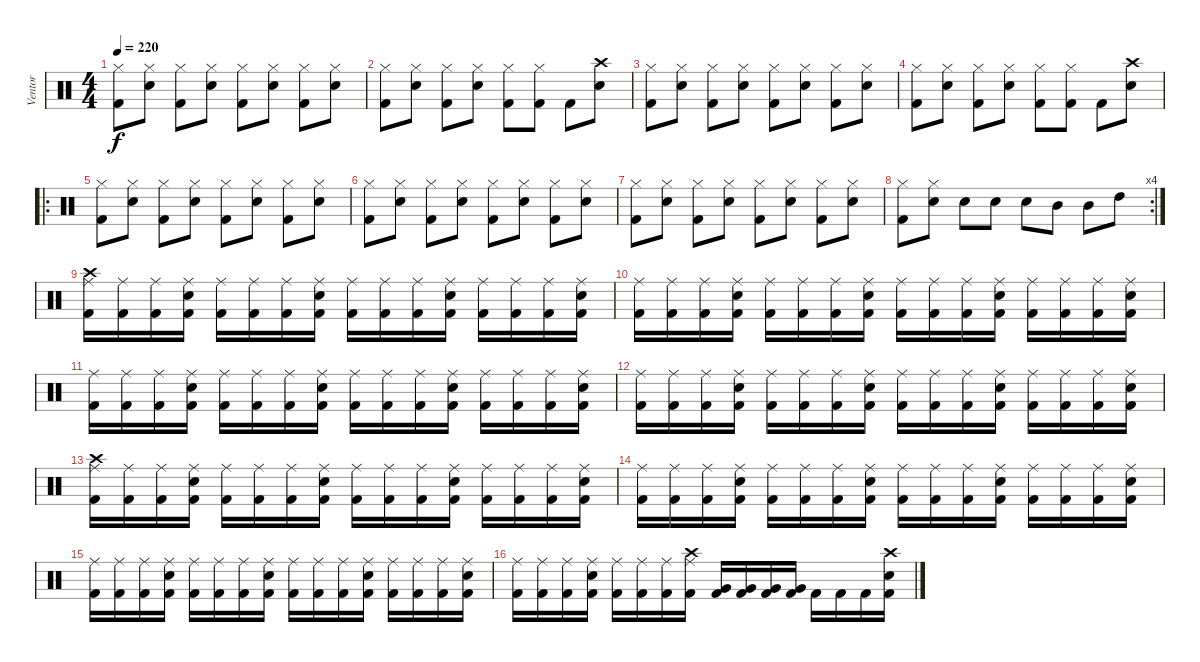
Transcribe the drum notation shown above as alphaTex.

\track ("Ventor" "Ventor") {instrument percussion}
\staff {score}
\articulation defaults
\ts (4 4)
\tempo 220
\clef neutral
\ks c
("Kick (hit) 2" "Hi-Hat (closed)").8{dy f} ("Snare (hit) 2" "Hi-Hat (closed)").8 ("Kick (hit) 2" "Hi-Hat (closed)").8 ("Snare (hit) 2" "Hi-Hat (closed)").8 ("Kick (hit) 2" "Hi-Hat (closed)").8 ("Snare (hit) 2" "Hi-Hat (closed)").8 ("Kick (hit) 2" "Hi-Hat (closed)").8 ("Snare (hit) 2" "Hi-Hat (closed)").8 |
("Kick (hit) 2" "Hi-Hat (closed)").8 ("Snare (hit) 2" "Hi-Hat (closed)").8 ("Kick (hit) 2" "Hi-Hat (closed)").8 ("Snare (hit) 2" "Hi-Hat (closed)").8 ("Kick (hit) 2" "Hi-Hat (closed)").8 ("Kick (hit) 2" "Hi-Hat (closed)").8 "Kick (hit) 2".8 ("Snare (hit) 2" "Crash high (hit)").8 |
("Kick (hit) 2" "Hi-Hat (closed)").8 ("Snare (hit) 2" "Hi-Hat (closed)").8 ("Kick (hit) 2" "Hi-Hat (closed)").8 ("Snare (hit) 2" "Hi-Hat (closed)").8 ("Kick (hit) 2" "Hi-Hat (closed)").8 ("Snare (hit) 2" "Hi-Hat (closed)").8 ("Kick (hit) 2" "Hi-Hat (closed)").8 ("Snare (hit) 2" "Hi-Hat (closed)").8 |
("Kick (hit) 2" "Hi-Hat (closed)").8 ("Snare (hit) 2" "Hi-Hat (closed)").8 ("Kick (hit) 2" "Hi-Hat (closed)").8 ("Snare (hit) 2" "Hi-Hat (closed)").8 ("Kick (hit) 2" "Hi-Hat (closed)").8 ("Kick (hit) 2" "Hi-Hat (closed)").8 "Kick (hit) 2".8 ("Snare (hit) 2" "Crash high (hit)").8 |
\ro
("Hi-Hat (closed)" "Kick (hit) 2").8 ("Hi-Hat (closed)" "Snare (hit) 2").8 ("Hi-Hat (closed)" "Kick (hit) 2").8 ("Hi-Hat (closed)" "Snare (hit) 2").8 ("Hi-Hat (closed)" "Kick (hit) 2").8 ("Hi-Hat (closed)" "Snare (hit) 2").8 ("Hi-Hat (closed)" "Kick (hit) 2").8 ("Hi-Hat (closed)" "Snare (hit) 2").8 |
("Hi-Hat (closed)" "Kick (hit) 2").8 ("Hi-Hat (closed)" "Snare (hit) 2").8 ("Hi-Hat (closed)" "Kick (hit) 2").8 ("Hi-Hat (closed)" "Snare (hit) 2").8 ("Hi-Hat (closed)" "Kick (hit) 2").8 ("Hi-Hat (closed)" "Snare (hit) 2").8 ("Hi-Hat (closed)" "Kick (hit) 2").8 ("Hi-Hat (closed)" "Snare (hit) 2").8 |
("Hi-Hat (closed)" "Kick (hit) 2").8 ("Hi-Hat (closed)" "Snare (hit) 2").8 ("Hi-Hat (closed)" "Kick (hit) 2").8 ("Hi-Hat (closed)" "Snare (hit) 2").8 ("Hi-Hat (closed)" "Kick (hit) 2").8 ("Hi-Hat (closed)" "Snare (hit) 2").8 ("Hi-Hat (closed)" "Kick (hit) 2").8 ("Hi-Hat (closed)" "Snare (hit) 2").8 |
\rc 4
("Hi-Hat (closed)" "Kick (hit) 2").8 ("Hi-Hat (closed)" "Snare (hit) 2").8 "Snare (hit) 2".8 "Snare (hit) 2".8 "Snare (hit) 2".8 "Mid Tom (hit)".8 "Mid Tom (hit)".8 "High Tom (hit)".8 |
("Crash high (hit)" "Kick (hit) 2" "Ride (middle)").16 ("Kick (hit) 2" "Ride (middle)").16 ("Kick (hit) 2" "Ride (middle)").16 ("Snare (hit) 2" "Kick (hit) 2" "Ride (middle)").16 ("Kick (hit) 2" "Ride (middle)").16 ("Kick (hit) 2" "Ride (middle)").16 ("Kick (hit) 2" "Ride (middle)").16 ("Snare (hit) 2" "Kick (hit) 2" "Ride (middle)").16 ("Kick (hit) 2" "Ride (middle)").16 ("Kick (hit) 2" "Ride (middle)").16 ("Kick (hit) 2" "Ride (middle)").16 ("Snare (hit) 2" "Kick (hit) 2" "Ride (middle)").16 ("Kick (hit) 2" "Ride (middle)").16 ("Kick (hit) 2" "Ride (middle)").16 ("Kick (hit) 2" "Ride (middle)").16 ("Snare (hit) 2" "Kick (hit) 2" "Ride (middle)").16 |
("Kick (hit) 2" "Ride (middle)").16 ("Kick (hit) 2" "Ride (middle)").16 ("Kick (hit) 2" "Ride (middle)").16 ("Snare (hit) 2" "Kick (hit) 2" "Ride (middle)").16 ("Kick (hit) 2" "Ride (middle)").16 ("Kick (hit) 2" "Ride (middle)").16 ("Kick (hit) 2" "Ride (middle)").16 ("Snare (hit) 2" "Kick (hit) 2" "Ride (middle)").16 ("Kick (hit) 2" "Ride (middle)").16 ("Kick (hit) 2" "Ride (middle)").16 ("Kick (hit) 2" "Ride (middle)").16 ("Snare (hit) 2" "Kick (hit) 2" "Ride (middle)").16 ("Kick (hit) 2" "Ride (middle)").16 ("Kick (hit) 2" "Ride (middle)").16 ("Kick (hit) 2" "Ride (middle)").16 ("Snare (hit) 2" "Kick (hit) 2" "Ride (middle)").16 |
("Kick (hit) 2" "Ride (middle)").16 ("Kick (hit) 2" "Ride (middle)").16 ("Kick (hit) 2" "Ride (middle)").16 ("Snare (hit) 2" "Kick (hit) 2" "Ride (middle)").16 ("Kick (hit) 2" "Ride (middle)").16 ("Kick (hit) 2" "Ride (middle)").16 ("Kick (hit) 2" "Ride (middle)").16 ("Snare (hit) 2" "Kick (hit) 2" "Ride (middle)").16 ("Kick (hit) 2" "Ride (middle)").16 ("Kick (hit) 2" "Ride (middle)").16 ("Kick (hit) 2" "Ride (middle)").16 ("Snare (hit) 2" "Kick (hit) 2" "Ride (middle)").16 ("Kick (hit) 2" "Ride (middle)").16 ("Kick (hit) 2" "Ride (middle)").16 ("Kick (hit) 2" "Ride (middle)").16 ("Snare (hit) 2" "Kick (hit) 2" "Ride (middle)").16 |
("Kick (hit) 2" "Ride (middle)").16 ("Kick (hit) 2" "Ride (middle)").16 ("Kick (hit) 2" "Ride (middle)").16 ("Snare (hit) 2" "Kick (hit) 2" "Ride (middle)").16 ("Kick (hit) 2" "Ride (middle)").16 ("Kick (hit) 2" "Ride (middle)").16 ("Kick (hit) 2" "Ride (middle)").16 ("Snare (hit) 2" "Kick (hit) 2" "Ride (middle)").16 ("Kick (hit) 2" "Ride (middle)").16 ("Kick (hit) 2" "Ride (middle)").16 ("Kick (hit) 2" "Ride (middle)").16 ("Snare (hit) 2" "Kick (hit) 2" "Ride (middle)").16 ("Kick (hit) 2" "Ride (middle)").16 ("Kick (hit) 2" "Ride (middle)").16 ("Kick (hit) 2" "Ride (middle)").16 ("Snare (hit) 2" "Kick (hit) 2" "Ride (middle)").16 |
("Crash high (hit)" "Kick (hit) 2" "Ride (middle)").16 ("Kick (hit) 2" "Ride (middle)").16 ("Kick (hit) 2" "Ride (middle)").16 ("Snare (hit) 2" "Kick (hit) 2" "Ride (middle)").16 ("Kick (hit) 2" "Ride (middle)").16 ("Kick (hit) 2" "Ride (middle)").16 ("Kick (hit) 2" "Ride (middle)").16 ("Snare (hit) 2" "Kick (hit) 2" "Ride (middle)").16 ("Kick (hit) 2" "Ride (middle)").16 ("Kick (hit) 2" "Ride (middle)").16 ("Kick (hit) 2" "Ride (middle)").16 ("Snare (hit) 2" "Kick (hit) 2" "Ride (middle)").16 ("Kick (hit) 2" "Ride (middle)").16 ("Kick (hit) 2" "Ride (middle)").16 ("Kick (hit) 2" "Ride (middle)").16 ("Snare (hit) 2" "Kick (hit) 2" "Ride (middle)").16 |
("Kick (hit) 2" "Ride (middle)").16 ("Kick (hit) 2" "Ride (middle)").16 ("Kick (hit) 2" "Ride (middle)").16 ("Snare (hit) 2" "Kick (hit) 2" "Ride (middle)").16 ("Kick (hit) 2" "Ride (middle)").16 ("Kick (hit) 2" "Ride (middle)").16 ("Kick (hit) 2" "Ride (middle)").16 ("Snare (hit) 2" "Kick (hit) 2" "Ride (middle)").16 ("Kick (hit) 2" "Ride (middle)").16 ("Kick (hit) 2" "Ride (middle)").16 ("Kick (hit) 2" "Ride (middle)").16 ("Snare (hit) 2" "Kick (hit) 2" "Ride (middle)").16 ("Kick (hit) 2" "Ride (middle)").16 ("Kick (hit) 2" "Ride (middle)").16 ("Kick (hit) 2" "Ride (middle)").16 ("Snare (hit) 2" "Kick (hit) 2" "Ride (middle)").16 |
("Kick (hit) 2" "Ride (middle)").16 ("Kick (hit) 2" "Ride (middle)").16 ("Kick (hit) 2" "Ride (middle)").16 ("Snare (hit) 2" "Kick (hit) 2" "Ride (middle)").16 ("Kick (hit) 2" "Ride (middle)").16 ("Kick (hit) 2" "Ride (middle)").16 ("Kick (hit) 2" "Ride (middle)").16 ("Snare (hit) 2" "Kick (hit) 2" "Ride (middle)").16 ("Kick (hit) 2" "Ride (middle)").16 ("Kick (hit) 2" "Ride (middle)").16 ("Kick (hit) 2" "Ride (middle)").16 ("Snare (hit) 2" "Kick (hit) 2" "Ride (middle)").16 ("Kick (hit) 2" "Ride (middle)").16 ("Kick (hit) 2" "Ride (middle)").16 ("Kick (hit) 2" "Ride (middle)").16 ("Snare (hit) 2" "Kick (hit) 2" "Ride (middle)").16 |
("Kick (hit) 2" "Ride (middle)").16 ("Kick (hit) 2" "Ride (middle)").16 ("Kick (hit) 2" "Ride (middle)").16 ("Snare (hit) 2" "Kick (hit) 2" "Ride (middle)").16 ("Kick (hit) 2" "Ride (middle)").16 ("Kick (hit) 2" "Ride (middle)").16 ("Kick (hit) 2" "Ride (middle)").16 ("Crash high (hit)" "Kick (hit) 2" "Ride (middle)").16 ("Kick (hit) 2" "Very Low Tom (hit)").16 ("Kick (hit) 2" "Very Low Tom (hit)").16 ("Kick (hit) 2" "Very Low Tom (hit)").16 ("Kick (hit) 2" "Very Low Tom (hit)").16 "Kick (hit) 2".16 "Kick (hit) 2".16 "Kick (hit) 2".16 ("Crash high (hit)" "Snare (hit) 2" "Kick (hit) 2").16
